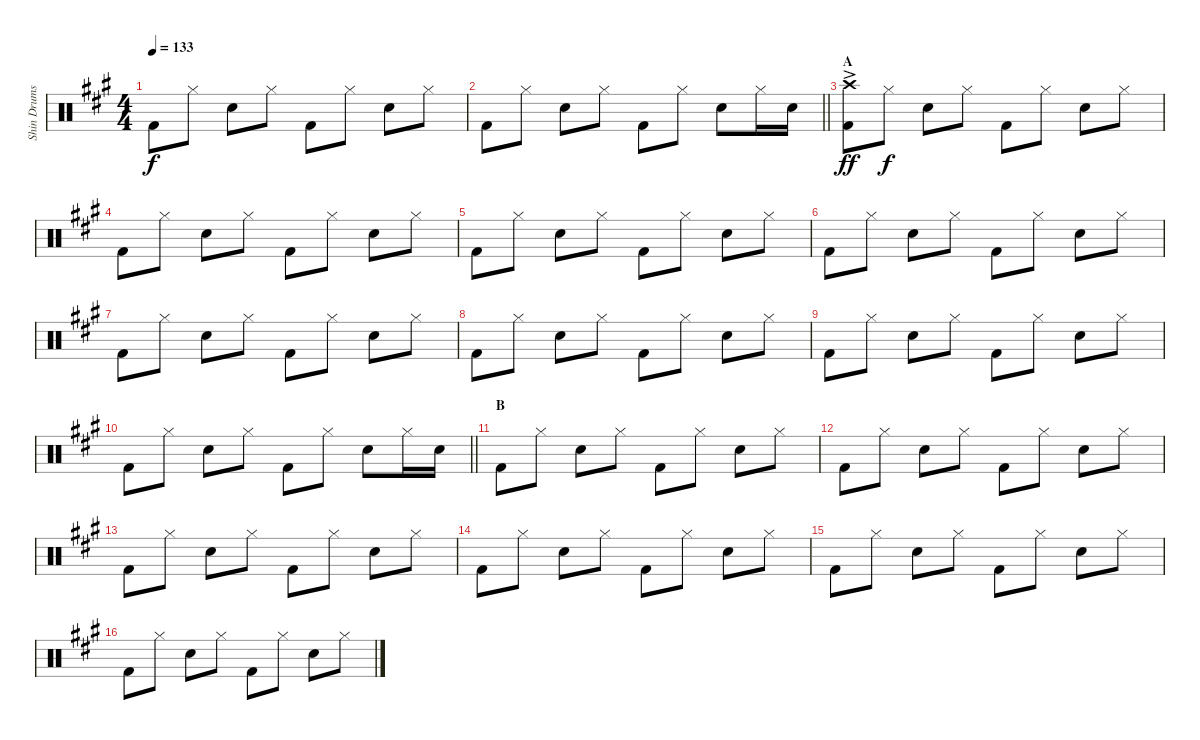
\track ("Shin Drums" "Shin Drums") {instrument percussion}
\staff {score}
\articulation defaults
\ts (4 4)
\tempo 133
\clef neutral
\ks a "Kick (hit) 2".8{dy f} "Hi-Hat (closed)".8 "Snare (hit) 2".8 "Hi-Hat (closed)".8 "Kick (hit) 2".8 "Hi-Hat (closed)".8 "Snare (hit) 2".8 "Hi-Hat (closed)".8
|
\barLineRight lightlight "Kick (hit) 2".8 "Hi-Hat (closed)".8 "Snare (hit) 2".8 "Hi-Hat (closed)".8 "Kick (hit) 2".8 "Hi-Hat (closed)".8 "Snare (hit) 2".8 "Hi-Hat (closed)".16 "Snare (hit) 2".16
|
\section ("" "A")
("Crash high (hit)"{ac} "Kick (hit) 2").8{dy ff} "Hi-Hat (closed)".8{dy f} "Snare (hit) 2".8 "Hi-Hat (closed)".8 "Kick (hit) 2".8 "Hi-Hat (closed)".8 "Snare (hit) 2".8 "Hi-Hat (closed)".8 |
"Kick (hit) 2".8 "Hi-Hat (closed)".8 "Snare (hit) 2".8 "Hi-Hat (closed)".8 "Kick (hit) 2".8 "Hi-Hat (closed)".8 "Snare (hit) 2".8 "Hi-Hat (closed)".8 |
"Kick (hit) 2".8 "Hi-Hat (closed)".8 "Snare (hit) 2".8 "Hi-Hat (closed)".8 "Kick (hit) 2".8 "Hi-Hat (closed)".8 "Snare (hit) 2".8 "Hi-Hat (closed)".8 |
"Kick (hit) 2".8 "Hi-Hat (closed)".8 "Snare (hit) 2".8 "Hi-Hat (closed)".8 "Kick (hit) 2".8 "Hi-Hat (closed)".8 "Snare (hit) 2".8 "Hi-Hat (closed)".8 |
"Kick (hit) 2".8 "Hi-Hat (closed)".8 "Snare (hit) 2".8 "Hi-Hat (closed)".8 "Kick (hit) 2".8 "Hi-Hat (closed)".8 "Snare (hit) 2".8 "Hi-Hat (closed)".8 |
"Kick (hit) 2".8 "Hi-Hat (closed)".8 "Snare (hit) 2".8 "Hi-Hat (closed)".8 "Kick (hit) 2".8 "Hi-Hat (closed)".8 "Snare (hit) 2".8 "Hi-Hat (closed)".8 |
"Kick (hit) 2".8 "Hi-Hat (closed)".8 "Snare (hit) 2".8 "Hi-Hat (closed)".8 "Kick (hit) 2".8 "Hi-Hat (closed)".8 "Snare (hit) 2".8 "Hi-Hat (closed)".8 |
\barLineRight lightlight "Kick (hit) 2".8 "Hi-Hat (closed)".8 "Snare (hit) 2".8 "Hi-Hat (closed)".8 "Kick (hit) 2".8 "Hi-Hat (closed)".8 "Snare (hit) 2".8 "Hi-Hat (closed)".16 "Snare (hit) 2".16
|
\section ("" "B")
"Kick (hit) 2".8 "Hi-Hat (closed)".8 "Snare (hit) 2".8 "Hi-Hat (closed)".8 "Kick (hit) 2".8 "Hi-Hat (closed)".8 "Snare (hit) 2".8 "Hi-Hat (closed)".8 |
"Kick (hit) 2".8 "Hi-Hat (closed)".8 "Snare (hit) 2".8 "Hi-Hat (closed)".8 "Kick (hit) 2".8 "Hi-Hat (closed)".8 "Snare (hit) 2".8 "Hi-Hat (closed)".8 |
"Kick (hit) 2".8 "Hi-Hat (closed)".8 "Snare (hit) 2".8 "Hi-Hat (closed)".8 "Kick (hit) 2".8 "Hi-Hat (closed)".8 "Snare (hit) 2".8 "Hi-Hat (closed)".8 |
"Kick (hit) 2".8 "Hi-Hat (closed)".8 "Snare (hit) 2".8 "Hi-Hat (closed)".8 "Kick (hit) 2".8 "Hi-Hat (closed)".8 "Snare (hit) 2".8 "Hi-Hat (closed)".8 |
"Kick (hit) 2".8 "Hi-Hat (closed)".8 "Snare (hit) 2".8 "Hi-Hat (closed)".8 "Kick (hit) 2".8 "Hi-Hat (closed)".8 "Snare (hit) 2".8 "Hi-Hat (closed)".8 |
"Kick (hit) 2".8 "Hi-Hat (closed)".8 "Snare (hit) 2".8 "Hi-Hat (closed)".8 "Kick (hit) 2".8 "Hi-Hat (closed)".8 "Snare (hit) 2".8 "Hi-Hat (closed)".8
